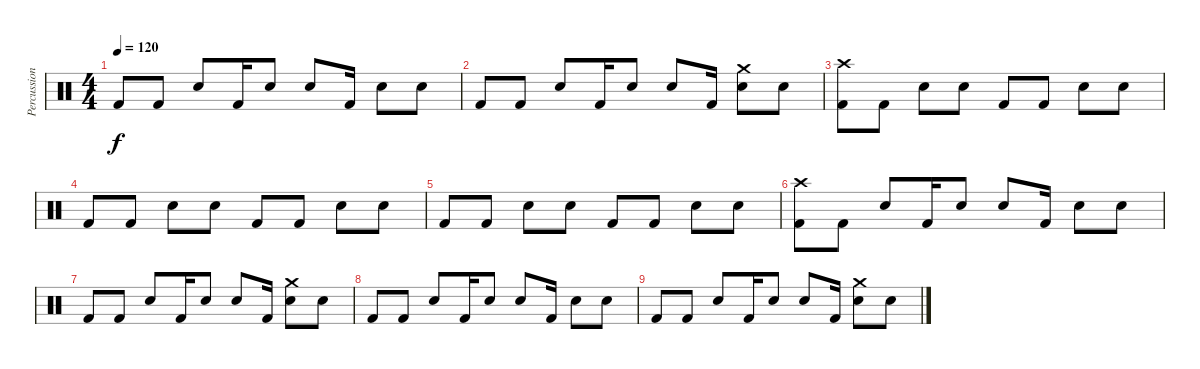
\track ("Percussion" "Percussion") {instrument percussion}
\staff {score}
\articulation defaults
\ts (4 4)
\tempo 120
\clef neutral
\ks c "Kick (hit) 2".8{dy f} "Kick (hit) 2".8 "Snare (hit) 2".8 "Kick (hit) 2".16 "Snare (hit) 2".8 "Snare (hit) 2".8 "Kick (hit) 2".16 "Snare (hit) 2".8 "Snare (hit)".8
|
"Kick (hit) 2".8 "Kick (hit) 2".8 "Snare (hit) 2".8 "Kick (hit) 2".16 "Snare (hit) 2".8 "Snare (hit) 2".8 "Kick (hit) 2".16 ("Crash medium (hit)" "Snare (hit) 2").8 "Snare (hit)".8 |
("Crash high (hit)" "Kick (hit) 2").8 "Kick (hit) 2".8 "Snare (hit) 2".8 "Snare (hit)".8 "Kick (hit) 2".8 "Kick (hit) 2".8 "Snare (hit) 2".8 "Snare (hit)".8 |
"Kick (hit) 2".8 "Kick (hit) 2".8 "Snare (hit) 2".8 "Snare (hit)".8 "Kick (hit) 2".8 "Kick (hit) 2".8 "Snare (hit) 2".8 "Snare (hit)".8 |
"Kick (hit) 2".8 "Kick (hit) 2".8 "Snare (hit) 2".8 "Snare (hit)".8 "Kick (hit) 2".8 "Kick (hit) 2".8 "Snare (hit) 2".8 "Snare (hit)".8 |
("Crash high (hit)" "Kick (hit) 2").8 "Kick (hit) 2".8 "Snare (hit) 2".8 "Kick (hit) 2".16 "Snare (hit) 2".8 "Snare (hit) 2".8 "Kick (hit) 2".16 "Snare (hit) 2".8 "Snare (hit)".8 |
"Kick (hit) 2".8 "Kick (hit) 2".8 "Snare (hit) 2".8 "Kick (hit) 2".16 "Snare (hit) 2".8 "Snare (hit) 2".8 "Kick (hit) 2".16 ("Crash medium (hit)" "Snare (hit) 2").8 "Snare (hit)".8 |
"Kick (hit) 2".8 "Kick (hit) 2".8 "Snare (hit) 2".8 "Kick (hit) 2".16 "Snare (hit) 2".8 "Snare (hit) 2".8 "Kick (hit) 2".16 "Snare (hit) 2".8 "Snare (hit)".8 |
"Kick (hit) 2".8 "Kick (hit) 2".8 "Snare (hit) 2".8 "Kick (hit) 2".16 "Snare (hit) 2".8 "Snare (hit) 2".8 "Kick (hit) 2".16 ("Crash medium (hit)" "Snare (hit) 2").8 "Snare (hit)".8
